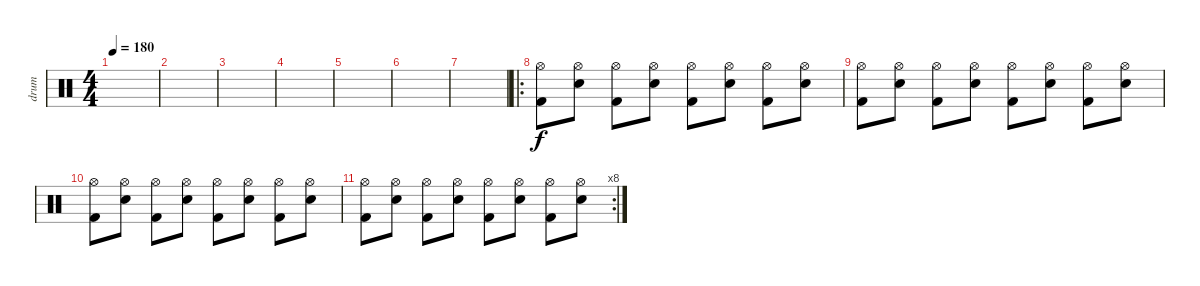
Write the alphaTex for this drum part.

\track ("drum" "drum") {instrument percussion}
\staff {score}
\articulation defaults
\ts (4 4)
\tempo 180
\clef neutral
\ks c
|
|
|
|
|
|
|
\ro
("Hi-Hat (open)" "Kick (hit) 2").8 ("Hi-Hat (open)" "Snare (hit) 2").8 ("Hi-Hat (open)" "Kick (hit) 2").8 ("Hi-Hat (open)" "Snare (hit) 2").8 ("Hi-Hat (open)" "Kick (hit) 2").8 ("Hi-Hat (open)" "Snare (hit) 2").8 ("Hi-Hat (open)" "Kick (hit) 2").8 ("Hi-Hat (open)" "Snare (hit) 2").8 |
("Hi-Hat (open)" "Kick (hit) 2").8 ("Hi-Hat (open)" "Snare (hit) 2").8 ("Hi-Hat (open)" "Kick (hit) 2").8 ("Hi-Hat (open)" "Snare (hit) 2").8 ("Hi-Hat (open)" "Kick (hit) 2").8 ("Hi-Hat (open)" "Snare (hit) 2").8 ("Hi-Hat (open)" "Kick (hit) 2").8 ("Hi-Hat (open)" "Snare (hit) 2").8 |
("Hi-Hat (open)" "Kick (hit) 2").8 ("Hi-Hat (open)" "Snare (hit) 2").8 ("Hi-Hat (open)" "Kick (hit) 2").8 ("Hi-Hat (open)" "Snare (hit) 2").8 ("Hi-Hat (open)" "Kick (hit) 2").8 ("Hi-Hat (open)" "Snare (hit) 2").8 ("Hi-Hat (open)" "Kick (hit) 2").8 ("Hi-Hat (open)" "Snare (hit) 2").8 |
\rc 8
("Hi-Hat (open)" "Kick (hit) 2").8 ("Hi-Hat (open)" "Snare (hit) 2").8 ("Hi-Hat (open)" "Kick (hit) 2").8 ("Hi-Hat (open)" "Snare (hit) 2").8 ("Hi-Hat (open)" "Kick (hit) 2").8 ("Hi-Hat (open)" "Snare (hit) 2").8 ("Hi-Hat (open)" "Kick (hit) 2").8 ("Hi-Hat (open)" "Snare (hit) 2").8
